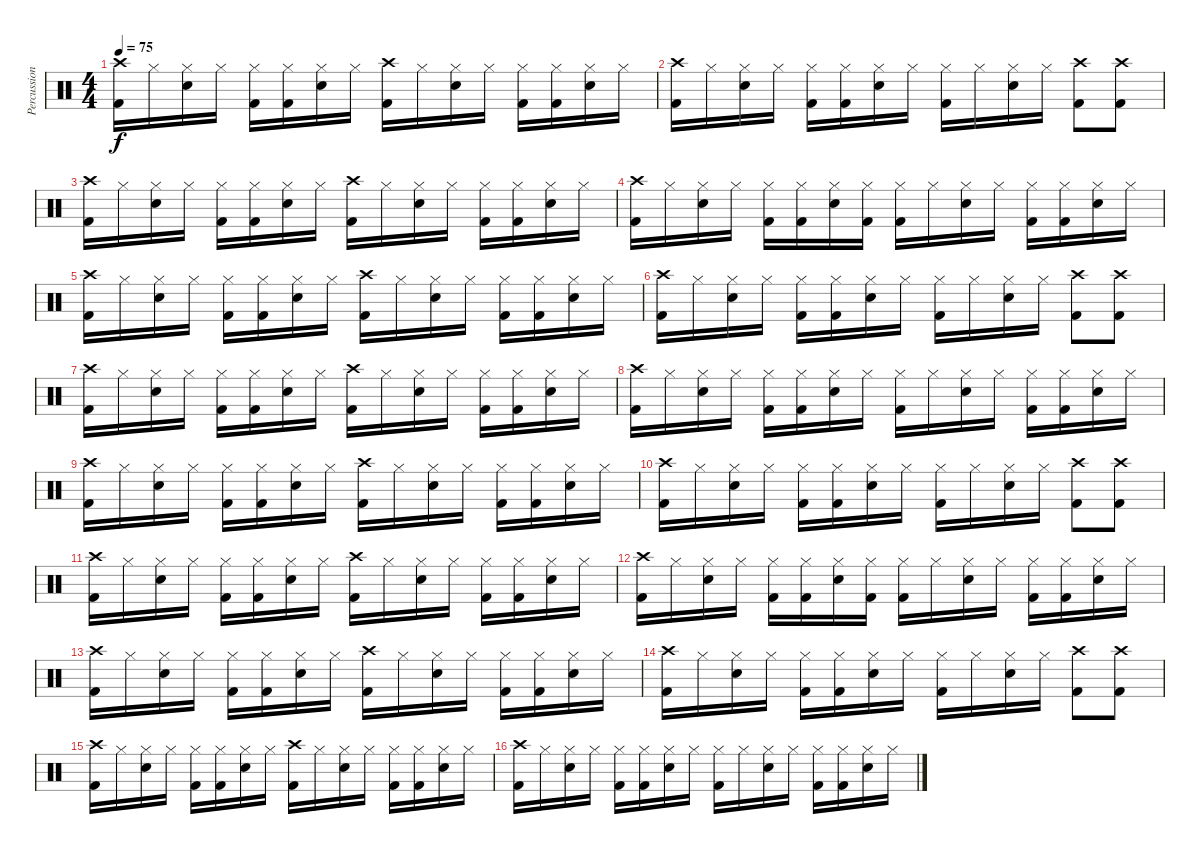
\track ("Percussion" "Percussion") {instrument percussion}
\staff {score}
\articulation defaults
\ts (4 4)
\tempo 75
\clef neutral
\ks c
("Crash high (hit)" "Kick (hit) 2").16{dy f} "Hi-Hat (closed)".16 ("Hi-Hat (closed)" "Electric Snare (hit)").16 "Hi-Hat (closed)".16 ("Hi-Hat (closed)" "Kick (hit) 2").16 ("Hi-Hat (closed)" "Kick (hit) 2").16 ("Hi-Hat (closed)" "Electric Snare (hit)").16 "Hi-Hat (closed)".16 ("Crash high (hit)" "Kick (hit) 2").16 "Hi-Hat (closed)".16 ("Hi-Hat (closed)" "Electric Snare (hit)").16 "Hi-Hat (closed)".16 ("Hi-Hat (closed)" "Kick (hit) 2").16 ("Hi-Hat (closed)" "Kick (hit) 2").16 ("Hi-Hat (closed)" "Electric Snare (hit)").16 "Hi-Hat (closed)".16 |
("Crash high (hit)" "Kick (hit) 2").16 "Hi-Hat (closed)".16 ("Hi-Hat (closed)" "Electric Snare (hit)").16 "Hi-Hat (closed)".16 ("Hi-Hat (closed)" "Kick (hit) 2").16 ("Hi-Hat (closed)" "Kick (hit) 2").16 ("Hi-Hat (closed)" "Electric Snare (hit)").16 "Hi-Hat (closed)".16 ("Hi-Hat (closed)" "Kick (hit) 2").16 "Hi-Hat (closed)".16 ("Hi-Hat (closed)" "Electric Snare (hit)").16 "Hi-Hat (closed)".16 ("Crash high (hit)" "Kick (hit) 2").8 ("Crash high (hit)" "Kick (hit) 2").8 |
("Crash high (hit)" "Kick (hit) 2").16 "Hi-Hat (closed)".16 ("Hi-Hat (closed)" "Electric Snare (hit)").16 "Hi-Hat (closed)".16 ("Hi-Hat (closed)" "Kick (hit) 2").16 ("Hi-Hat (closed)" "Kick (hit) 2").16 ("Hi-Hat (closed)" "Electric Snare (hit)").16 "Hi-Hat (closed)".16 ("Crash high (hit)" "Kick (hit) 2").16 "Hi-Hat (closed)".16 ("Hi-Hat (closed)" "Electric Snare (hit)").16 "Hi-Hat (closed)".16 ("Hi-Hat (closed)" "Kick (hit) 2").16 ("Hi-Hat (closed)" "Kick (hit) 2").16 ("Hi-Hat (closed)" "Electric Snare (hit)").16 "Hi-Hat (closed)".16 |
("Crash high (hit)" "Kick (hit) 2").16 "Hi-Hat (closed)".16 ("Hi-Hat (closed)" "Electric Snare (hit)").16 "Hi-Hat (closed)".16 ("Hi-Hat (closed)" "Kick (hit) 2").16 ("Hi-Hat (closed)" "Kick (hit) 2").16 ("Hi-Hat (closed)" "Electric Snare (hit)").16 ("Hi-Hat (closed)" "Kick (hit) 2").16 ("Hi-Hat (closed)" "Kick (hit) 2").16 "Hi-Hat (closed)".16 ("Hi-Hat (closed)" "Electric Snare (hit)").16 "Hi-Hat (closed)".16 ("Hi-Hat (closed)" "Kick (hit) 2").16 ("Hi-Hat (closed)" "Kick (hit) 2").16 ("Hi-Hat (closed)" "Electric Snare (hit)").16 "Hi-Hat (closed)".16 |
("Crash high (hit)" "Kick (hit) 2").16 "Hi-Hat (closed)".16 ("Hi-Hat (closed)" "Electric Snare (hit)").16 "Hi-Hat (closed)".16 ("Hi-Hat (closed)" "Kick (hit) 2").16 ("Hi-Hat (closed)" "Kick (hit) 2").16 ("Hi-Hat (closed)" "Electric Snare (hit)").16 "Hi-Hat (closed)".16 ("Crash high (hit)" "Kick (hit) 2").16 "Hi-Hat (closed)".16 ("Hi-Hat (closed)" "Electric Snare (hit)").16 "Hi-Hat (closed)".16 ("Hi-Hat (closed)" "Kick (hit) 2").16 ("Hi-Hat (closed)" "Kick (hit) 2").16 ("Hi-Hat (closed)" "Electric Snare (hit)").16 "Hi-Hat (closed)".16 |
("Crash high (hit)" "Kick (hit) 2").16 "Hi-Hat (closed)".16 ("Hi-Hat (closed)" "Electric Snare (hit)").16 "Hi-Hat (closed)".16 ("Hi-Hat (closed)" "Kick (hit) 2").16 ("Hi-Hat (closed)" "Kick (hit) 2").16 ("Hi-Hat (closed)" "Electric Snare (hit)").16 "Hi-Hat (closed)".16 ("Hi-Hat (closed)" "Kick (hit) 2").16 "Hi-Hat (closed)".16 ("Hi-Hat (closed)" "Electric Snare (hit)").16 "Hi-Hat (closed)".16 ("Crash high (hit)" "Kick (hit) 2").8 ("Crash high (hit)" "Kick (hit) 2").8 |
("Crash high (hit)" "Kick (hit) 2").16 "Hi-Hat (closed)".16 ("Hi-Hat (closed)" "Electric Snare (hit)").16 "Hi-Hat (closed)".16 ("Hi-Hat (closed)" "Kick (hit) 2").16 ("Hi-Hat (closed)" "Kick (hit) 2").16 ("Hi-Hat (closed)" "Electric Snare (hit)").16 "Hi-Hat (closed)".16 ("Crash high (hit)" "Kick (hit) 2").16 "Hi-Hat (closed)".16 ("Hi-Hat (closed)" "Electric Snare (hit)").16 "Hi-Hat (closed)".16 ("Hi-Hat (closed)" "Kick (hit) 2").16 ("Hi-Hat (closed)" "Kick (hit) 2").16 ("Hi-Hat (closed)" "Electric Snare (hit)").16 "Hi-Hat (closed)".16 |
("Crash high (hit)" "Kick (hit) 2").16 "Hi-Hat (closed)".16 ("Hi-Hat (closed)" "Electric Snare (hit)").16 "Hi-Hat (closed)".16 ("Hi-Hat (closed)" "Kick (hit) 2").16 ("Hi-Hat (closed)" "Kick (hit) 2").16 ("Hi-Hat (closed)" "Electric Snare (hit)").16 "Hi-Hat (closed)".16 ("Hi-Hat (closed)" "Kick (hit) 2").16 "Hi-Hat (closed)".16 ("Hi-Hat (closed)" "Electric Snare (hit)").16 "Hi-Hat (closed)".16 ("Hi-Hat (closed)" "Kick (hit) 2").16 ("Hi-Hat (closed)" "Kick (hit) 2").16 ("Hi-Hat (closed)" "Electric Snare (hit)").16 "Hi-Hat (closed)".16 |
("Crash high (hit)" "Kick (hit) 2").16 "Hi-Hat (closed)".16 ("Hi-Hat (closed)" "Electric Snare (hit)").16 "Hi-Hat (closed)".16 ("Hi-Hat (closed)" "Kick (hit) 2").16 ("Hi-Hat (closed)" "Kick (hit) 2").16 ("Hi-Hat (closed)" "Electric Snare (hit)").16 "Hi-Hat (closed)".16 ("Crash high (hit)" "Kick (hit) 2").16 "Hi-Hat (closed)".16 ("Hi-Hat (closed)" "Electric Snare (hit)").16 "Hi-Hat (closed)".16 ("Hi-Hat (closed)" "Kick (hit) 2").16 ("Hi-Hat (closed)" "Kick (hit) 2").16 ("Hi-Hat (closed)" "Electric Snare (hit)").16 "Hi-Hat (closed)".16 |
("Crash high (hit)" "Kick (hit) 2").16 "Hi-Hat (closed)".16 ("Hi-Hat (closed)" "Electric Snare (hit)").16 "Hi-Hat (closed)".16 ("Hi-Hat (closed)" "Kick (hit) 2").16 ("Hi-Hat (closed)" "Kick (hit) 2").16 ("Hi-Hat (closed)" "Electric Snare (hit)").16 "Hi-Hat (closed)".16 ("Hi-Hat (closed)" "Kick (hit) 2").16 "Hi-Hat (closed)".16 ("Hi-Hat (closed)" "Electric Snare (hit)").16 "Hi-Hat (closed)".16 ("Crash high (hit)" "Kick (hit) 2").8 ("Crash high (hit)" "Kick (hit) 2").8 |
("Crash high (hit)" "Kick (hit) 2").16 "Hi-Hat (closed)".16 ("Hi-Hat (closed)" "Electric Snare (hit)").16 "Hi-Hat (closed)".16 ("Hi-Hat (closed)" "Kick (hit) 2").16 ("Hi-Hat (closed)" "Kick (hit) 2").16 ("Hi-Hat (closed)" "Electric Snare (hit)").16 "Hi-Hat (closed)".16 ("Crash high (hit)" "Kick (hit) 2").16 "Hi-Hat (closed)".16 ("Hi-Hat (closed)" "Electric Snare (hit)").16 "Hi-Hat (closed)".16 ("Hi-Hat (closed)" "Kick (hit) 2").16 ("Hi-Hat (closed)" "Kick (hit) 2").16 ("Hi-Hat (closed)" "Electric Snare (hit)").16 "Hi-Hat (closed)".16 |
("Crash high (hit)" "Kick (hit) 2").16 "Hi-Hat (closed)".16 ("Hi-Hat (closed)" "Electric Snare (hit)").16 "Hi-Hat (closed)".16 ("Hi-Hat (closed)" "Kick (hit) 2").16 ("Hi-Hat (closed)" "Kick (hit) 2").16 ("Hi-Hat (closed)" "Electric Snare (hit)").16 ("Hi-Hat (closed)" "Kick (hit) 2").16 ("Hi-Hat (closed)" "Kick (hit) 2").16 "Hi-Hat (closed)".16 ("Hi-Hat (closed)" "Electric Snare (hit)").16 "Hi-Hat (closed)".16 ("Hi-Hat (closed)" "Kick (hit) 2").16 ("Hi-Hat (closed)" "Kick (hit) 2").16 ("Hi-Hat (closed)" "Electric Snare (hit)").16 "Hi-Hat (closed)".16 |
("Crash high (hit)" "Kick (hit) 2").16 "Hi-Hat (closed)".16 ("Hi-Hat (closed)" "Electric Snare (hit)").16 "Hi-Hat (closed)".16 ("Hi-Hat (closed)" "Kick (hit) 2").16 ("Hi-Hat (closed)" "Kick (hit) 2").16 ("Hi-Hat (closed)" "Electric Snare (hit)").16 "Hi-Hat (closed)".16 ("Crash high (hit)" "Kick (hit) 2").16 "Hi-Hat (closed)".16 ("Hi-Hat (closed)" "Electric Snare (hit)").16 "Hi-Hat (closed)".16 ("Hi-Hat (closed)" "Kick (hit) 2").16 ("Hi-Hat (closed)" "Kick (hit) 2").16 ("Hi-Hat (closed)" "Electric Snare (hit)").16 "Hi-Hat (closed)".16 |
("Crash high (hit)" "Kick (hit) 2").16 "Hi-Hat (closed)".16 ("Hi-Hat (closed)" "Electric Snare (hit)").16 "Hi-Hat (closed)".16 ("Hi-Hat (closed)" "Kick (hit) 2").16 ("Hi-Hat (closed)" "Kick (hit) 2").16 ("Hi-Hat (closed)" "Electric Snare (hit)").16 "Hi-Hat (closed)".16 ("Hi-Hat (closed)" "Kick (hit) 2").16 "Hi-Hat (closed)".16 ("Hi-Hat (closed)" "Electric Snare (hit)").16 "Hi-Hat (closed)".16 ("Crash high (hit)" "Kick (hit) 2").8 ("Crash high (hit)" "Kick (hit) 2").8 |
("Crash high (hit)" "Kick (hit) 2").16 "Hi-Hat (closed)".16 ("Hi-Hat (closed)" "Electric Snare (hit)").16 "Hi-Hat (closed)".16 ("Hi-Hat (closed)" "Kick (hit) 2").16 ("Hi-Hat (closed)" "Kick (hit) 2").16 ("Hi-Hat (closed)" "Electric Snare (hit)").16 "Hi-Hat (closed)".16 ("Crash high (hit)" "Kick (hit) 2").16 "Hi-Hat (closed)".16 ("Hi-Hat (closed)" "Electric Snare (hit)").16 "Hi-Hat (closed)".16 ("Hi-Hat (closed)" "Kick (hit) 2").16 ("Hi-Hat (closed)" "Kick (hit) 2").16 ("Hi-Hat (closed)" "Electric Snare (hit)").16 "Hi-Hat (closed)".16 |
("Crash high (hit)" "Kick (hit) 2").16 "Hi-Hat (closed)".16 ("Hi-Hat (closed)" "Electric Snare (hit)").16 "Hi-Hat (closed)".16 ("Hi-Hat (closed)" "Kick (hit) 2").16 ("Hi-Hat (closed)" "Kick (hit) 2").16 ("Hi-Hat (closed)" "Electric Snare (hit)").16 "Hi-Hat (closed)".16 ("Hi-Hat (closed)" "Kick (hit) 2").16 "Hi-Hat (closed)".16 ("Hi-Hat (closed)" "Electric Snare (hit)").16 "Hi-Hat (closed)".16 ("Hi-Hat (closed)" "Kick (hit) 2").16 ("Hi-Hat (closed)" "Kick (hit) 2").16 ("Hi-Hat (closed)" "Electric Snare (hit)").16 "Hi-Hat (closed)".16
